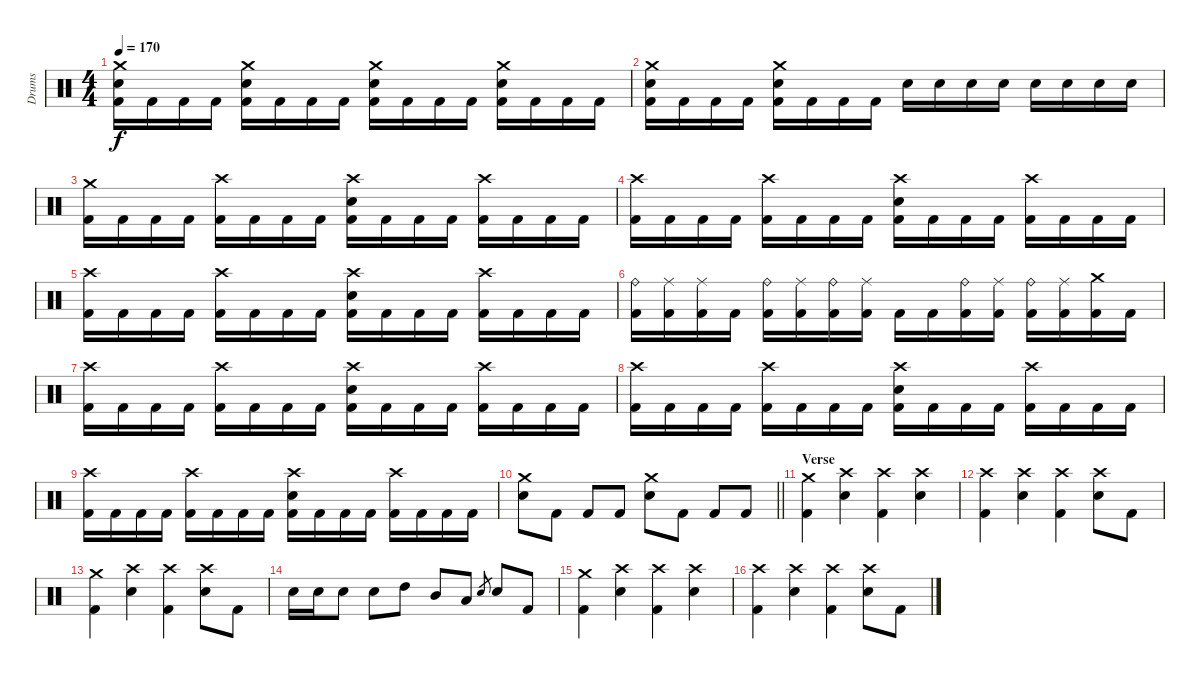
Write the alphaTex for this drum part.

\track ("Drums" "Drums") {instrument percussion}
\staff {score}
\articulation defaults
\ts (4 4)
\tempo 170
\clef neutral
\ks c
("Crash medium (hit)" "Electric Snare (hit)" "Kick (hit) 2").16{dy f} "Kick (hit) 2".16 "Kick (hit) 2".16 "Kick (hit) 2".16 ("Crash medium (hit)" "Electric Snare (hit)" "Kick (hit) 2").16 "Kick (hit) 2".16 "Kick (hit) 2".16 "Kick (hit) 2".16 ("Crash medium (hit)" "Electric Snare (hit)" "Kick (hit) 2").16 "Kick (hit) 2".16 "Kick (hit) 2".16 "Kick (hit) 2".16 ("Crash medium (hit)" "Electric Snare (hit)" "Kick (hit) 2").16 "Kick (hit) 2".16 "Kick (hit) 2".16 "Kick (hit) 2".16 |
("Crash medium (hit)" "Electric Snare (hit)" "Kick (hit) 2").16 "Kick (hit) 2".16 "Kick (hit) 2".16 "Kick (hit) 2".16 ("Crash medium (hit)" "Electric Snare (hit)" "Kick (hit) 2").16 "Kick (hit) 2".16 "Kick (hit) 2".16 "Kick (hit) 2".16 "Electric Snare (hit)".16 "Electric Snare (hit)".16 "Electric Snare (hit)".16 "Electric Snare (hit)".16 "Electric Snare (hit)".16 "Electric Snare (hit)".16 "Electric Snare (hit)".16 "Electric Snare (hit)".16 |
("Crash medium (hit)" "Kick (hit) 2").16 "Kick (hit) 2".16 "Kick (hit) 2".16 "Kick (hit) 2".16 ("Crash high (hit)" "Kick (hit) 2").16 "Kick (hit) 2".16 "Kick (hit) 2".16 "Kick (hit) 2".16 ("Crash high (hit)" "Electric Snare (hit)" "Kick (hit) 2").16 "Kick (hit) 2".16 "Kick (hit) 2".16 "Kick (hit) 2".16 ("Crash high (hit)" "Kick (hit) 2").16 "Kick (hit) 2".16 "Kick (hit) 2".16 "Kick (hit) 2".16 |
("Crash high (hit)" "Kick (hit) 2").16 "Kick (hit) 2".16 "Kick (hit) 2".16 "Kick (hit) 2".16 ("Crash high (hit)" "Kick (hit) 2").16 "Kick (hit) 2".16 "Kick (hit) 2".16 "Kick (hit) 2".16 ("Crash high (hit)" "Electric Snare (hit)" "Kick (hit) 2").16 "Kick (hit) 2".16 "Kick (hit) 2".16 "Kick (hit) 2".16 ("Crash high (hit)" "Kick (hit) 2").16 "Kick (hit) 2".16 "Kick (hit) 2".16 "Kick (hit) 2".16 |
("Crash high (hit)" "Kick (hit) 2").16 "Kick (hit) 2".16 "Kick (hit) 2".16 "Kick (hit) 2".16 ("Crash high (hit)" "Kick (hit) 2").16 "Kick (hit) 2".16 "Kick (hit) 2".16 "Kick (hit) 2".16 ("Crash high (hit)" "Electric Snare (hit)" "Kick (hit) 2").16 "Kick (hit) 2".16 "Kick (hit) 2".16 "Kick (hit) 2".16 ("Crash high (hit)" "Kick (hit) 2").16 "Kick (hit) 2".16 "Kick (hit) 2".16 "Kick (hit) 2".16 |
("Ride (bell)" "Kick (hit) 2").16 ("Ride (middle)" "Kick (hit) 2").16 ("Ride (middle)" "Kick (hit) 2").16 "Kick (hit) 2".16 ("Ride (bell)" "Kick (hit) 2").16 ("Ride (middle)" "Kick (hit) 2").16 ("Ride (bell)" "Kick (hit) 2").16 ("Ride (middle)" "Kick (hit) 2").16 "Kick (hit) 2".16 "Kick (hit) 2".16 ("Ride (bell)" "Kick (hit) 2").16 ("Ride (middle)" "Kick (hit) 2").16 ("Ride (bell)" "Kick (hit) 2").16 ("Ride (middle)" "Kick (hit) 2").16 ("Crash medium (hit)" "Kick (hit) 2").16 "Kick (hit) 2".16 |
("Crash high (hit)" "Kick (hit) 2").16 "Kick (hit) 2".16 "Kick (hit) 2".16 "Kick (hit) 2".16 ("Crash high (hit)" "Kick (hit) 2").16 "Kick (hit) 2".16 "Kick (hit) 2".16 "Kick (hit) 2".16 ("Crash high (hit)" "Electric Snare (hit)" "Kick (hit) 2").16 "Kick (hit) 2".16 "Kick (hit) 2".16 "Kick (hit) 2".16 ("Crash high (hit)" "Kick (hit) 2").16 "Kick (hit) 2".16 "Kick (hit) 2".16 "Kick (hit) 2".16 |
("Crash high (hit)" "Kick (hit) 2").16 "Kick (hit) 2".16 "Kick (hit) 2".16 "Kick (hit) 2".16 ("Crash high (hit)" "Kick (hit) 2").16 "Kick (hit) 2".16 "Kick (hit) 2".16 "Kick (hit) 2".16 ("Crash high (hit)" "Electric Snare (hit)" "Kick (hit) 2").16 "Kick (hit) 2".16 "Kick (hit) 2".16 "Kick (hit) 2".16 ("Crash high (hit)" "Kick (hit) 2").16 "Kick (hit) 2".16 "Kick (hit) 2".16 "Kick (hit) 2".16 |
("Crash high (hit)" "Kick (hit) 2").16 "Kick (hit) 2".16 "Kick (hit) 2".16 "Kick (hit) 2".16 ("Crash high (hit)" "Kick (hit) 2").16 "Kick (hit) 2".16 "Kick (hit) 2".16 "Kick (hit) 2".16 ("Crash high (hit)" "Electric Snare (hit)" "Kick (hit) 2").16 "Kick (hit) 2".16 "Kick (hit) 2".16 "Kick (hit) 2".16 ("Crash high (hit)" "Kick (hit) 2").16 "Kick (hit) 2".16 "Kick (hit) 2".16 "Kick (hit) 2".16 |
\barLineRight lightlight
("Crash medium (hit)" "Electric Snare (hit)").8 "Kick (hit) 2".8 "Kick (hit) 2".8 "Kick (hit) 2".8 ("Crash medium (hit)" "Electric Snare (hit)").8 "Kick (hit) 2".8 "Kick (hit) 2".8 "Kick (hit) 2".8 |
\section ("" "Verse")
("Crash medium (hit)" "Kick (hit) 2").4 ("Crash high (hit)" "Electric Snare (hit)").4 ("Crash high (hit)" "Kick (hit) 2").4 ("Crash high (hit)" "Electric Snare (hit)").4 |
("Crash high (hit)" "Kick (hit) 2").4 ("Crash high (hit)" "Electric Snare (hit)").4 ("Crash high (hit)" "Kick (hit) 2").4 ("Crash high (hit)" "Electric Snare (hit)").8 "Kick (hit) 2".8 |
("Crash medium (hit)" "Kick (hit) 2").4 ("Crash high (hit)" "Electric Snare (hit)").4 ("Crash high (hit)" "Kick (hit) 2").4 ("Crash high (hit)" "Electric Snare (hit)").8 "Kick (hit) 2".8 |
"Electric Snare (hit)".16 "Electric Snare (hit)".16 "Electric Snare (hit)".8 "Electric Snare (hit)".8 "High Tom (hit)".8 "Mid Tom (hit)".8 "Low Tom (hit)".8 "Electric Snare (hit)".8{gr} "Electric Snare (hit)".8 "Kick (hit) 2".8 |
("Crash medium (hit)" "Kick (hit) 2").4 ("Crash high (hit)" "Electric Snare (hit)").4 ("Crash high (hit)" "Kick (hit) 2").4 ("Crash high (hit)" "Electric Snare (hit)").4 |
("Crash high (hit)" "Kick (hit) 2").4 ("Crash high (hit)" "Electric Snare (hit)").4 ("Crash high (hit)" "Kick (hit) 2").4 ("Crash high (hit)" "Electric Snare (hit)").8 "Kick (hit) 2".8
